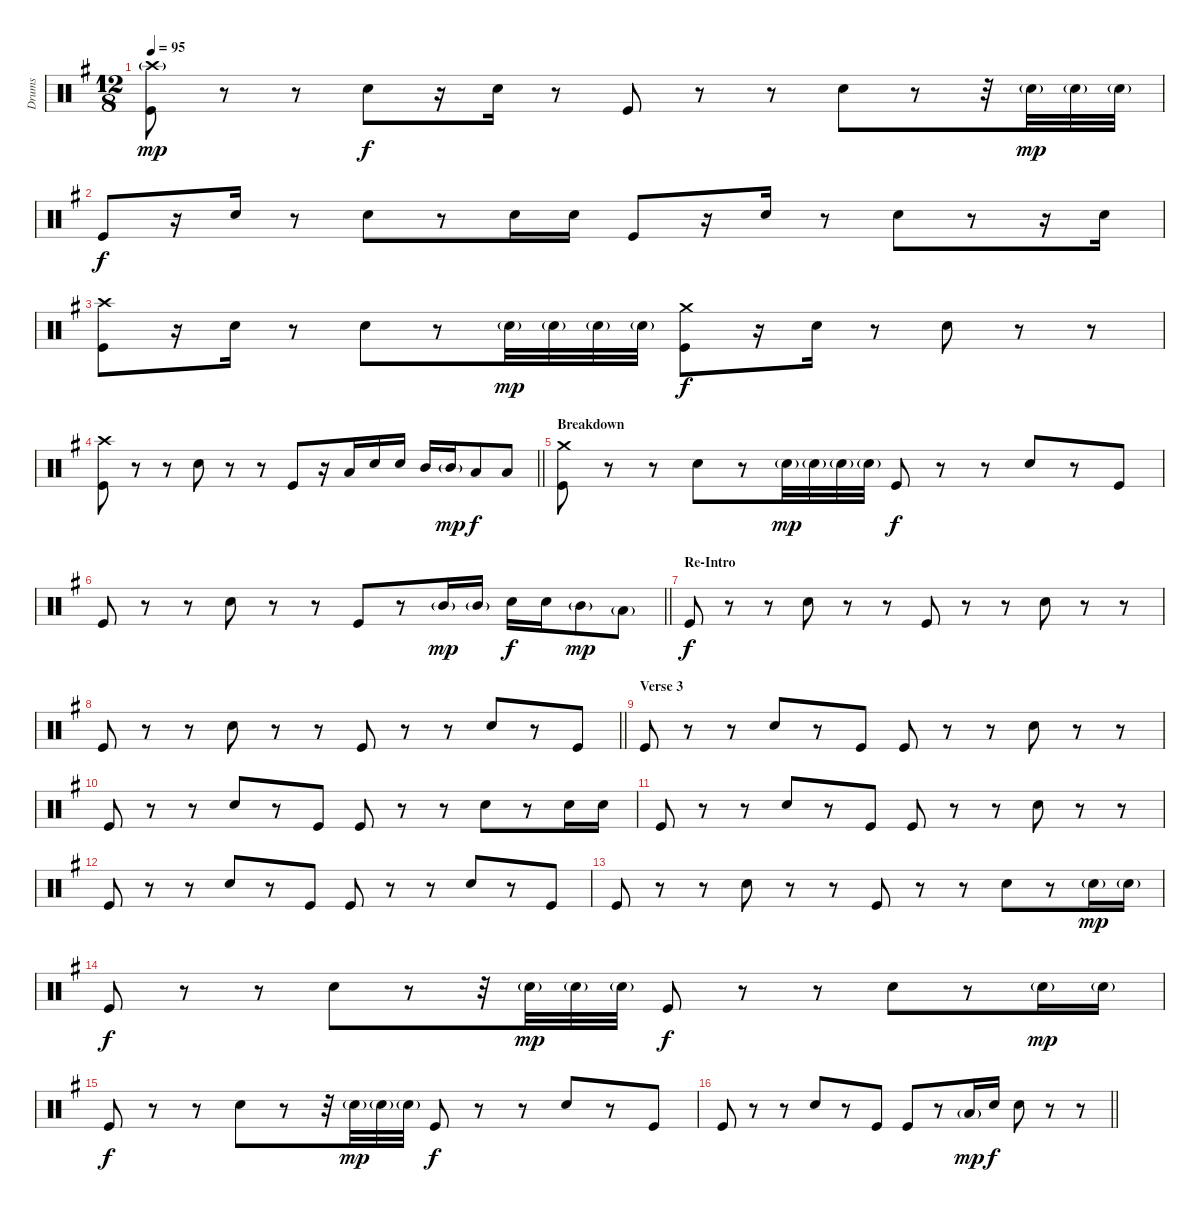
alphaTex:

\track ("Drums" "Drums") {instrument percussion}
\staff {score}
\articulation defaults
\ts (12 8)
\tempo 95
\clef neutral
\ks eminor
("Crash high (hit)"{g} "Kick (hit)").8{dy mp} r.8 r.8 "Snare (hit) 2".8{dy f} r.16 "Snare (hit) 2".16 r.8 "Kick (hit)".8 r.8 r.8 "Snare (hit) 2".8 r.8 r.32 "Snare (hit) 2"{g}.32{dy mp} "Snare (hit) 2"{g}.32 "Snare (hit) 2"{g}.32 |
"Kick (hit)".8{dy f} r.16 "Snare (hit) 2".16 r.8 "Snare (hit) 2".8 r.8 "Snare (hit) 2".16 "Snare (hit) 2".16 "Kick (hit)".8 r.16 "Snare (hit) 2".16 r.8 "Snare (hit) 2".8 r.8 r.16 "Snare (hit) 2".16 |
("Crash high (hit)" "Kick (hit)").8 r.16 "Snare (hit) 2".16 r.8 "Snare (hit) 2".8 r.8 "Snare (hit) 2"{g}.32{dy mp} "Snare (hit) 2"{g}.32 "Snare (hit) 2"{g}.32 "Snare (hit) 2"{g}.32 ("Crash medium (hit)" "Kick (hit)").8{dy f} r.16 "Snare (hit) 2".16 r.8 "Snare (hit) 2".8 r.8 r.8 |
\barLineRight lightlight
("Crash high (hit)" "Kick (hit)").8 r.8 r.8 "Snare (hit) 2".8 r.8 r.8 "Kick (hit)".8 r.16 "Low Tom (hit)".16 "Snare (hit) 2".16 "Snare (hit) 2".16 "Mid Tom (hit)".16 "Mid Tom (hit)"{g}.16{dy mp} "Low Tom (hit)".8{dy f} "Low Tom (hit)".8 |
\section ("" "Breakdown")
("Crash medium (hit)" "Kick (hit)").8 r.8 r.8 "Snare (hit) 2".8 r.8 "Snare (hit) 2"{g}.32{dy mp} "Snare (hit) 2"{g}.32 "Snare (hit) 2"{g}.32 "Snare (hit) 2"{g}.32 "Kick (hit)".8{dy f} r.8 r.8 "Snare (hit) 2".8 r.8 "Kick (hit)".8 |
\barLineRight lightlight "Kick (hit)".8
r.8 r.8 "Snare (hit) 2".8 r.8 r.8 "Kick (hit)".8 r.8 "Mid Tom (hit)"{g}.16{dy mp} "Mid Tom (hit)"{g}.16 "Snare (hit) 2".16{dy f} "Snare (hit) 2".16 "Mid Tom (hit)"{g}.8{dy mp} "Low Tom (hit)"{g}.8 |
\section ("" "Re-Intro")
"Kick (hit)".8{dy f} r.8 r.8 "Snare (hit) 2".8 r.8 r.8 "Kick (hit)".8 r.8 r.8 "Snare (hit) 2".8 r.8 r.8 |
\barLineRight lightlight "Kick (hit)".8
r.8 r.8 "Snare (hit) 2".8 r.8 r.8 "Kick (hit)".8 r.8 r.8 "Snare (hit) 2".8 r.8 "Kick (hit)".8 |
\section ("" "Verse 3")
"Kick (hit)".8 r.8 r.8 "Snare (hit) 2".8 r.8 "Kick (hit)".8 "Kick (hit)".8 r.8 r.8 "Snare (hit) 2".8 r.8 r.8 |
"Kick (hit)".8 r.8 r.8 "Snare (hit) 2".8 r.8 "Kick (hit)".8 "Kick (hit)".8 r.8 r.8 "Snare (hit) 2".8 r.8 "Snare (hit) 2".16 "Snare (hit) 2".16 |
"Kick (hit)".8 r.8 r.8 "Snare (hit) 2".8 r.8 "Kick (hit)".8 "Kick (hit)".8 r.8 r.8 "Snare (hit) 2".8 r.8 r.8 |
"Kick (hit)".8 r.8 r.8 "Snare (hit) 2".8 r.8 "Kick (hit)".8 "Kick (hit)".8 r.8 r.8 "Snare (hit) 2".8 r.8 "Kick (hit)".8 |
"Kick (hit)".8 r.8 r.8 "Snare (hit) 2".8 r.8 r.8 "Kick (hit)".8 r.8 r.8 "Snare (hit) 2".8 r.8 "Snare (hit) 2"{g}.16{dy mp} "Snare (hit) 2"{g}.16 |
"Kick (hit)".8{dy f} r.8 r.8 "Snare (hit) 2".8 r.8 r.32 "Snare (hit) 2"{g}.32{dy mp} "Snare (hit) 2"{g}.32 "Snare (hit) 2"{g}.32 "Kick (hit)".8{dy f} r.8 r.8 "Snare (hit) 2".8 r.8 "Snare (hit) 2"{g}.16{dy mp} "Snare (hit) 2"{g}.16 |
"Kick (hit)".8{dy f} r.8 r.8 "Snare (hit) 2".8 r.8 r.32 "Snare (hit) 2"{g}.32{dy mp} "Snare (hit) 2"{g}.32 "Snare (hit) 2"{g}.32 "Kick (hit)".8{dy f} r.8 r.8 "Snare (hit) 2".8 r.8 "Kick (hit)".8 |
\barLineRight lightlight "Kick (hit)".8
r.8 r.8 "Snare (hit) 2".8 r.8 "Kick (hit)".8 "Kick (hit)".8 r.8 "Low Tom (hit)"{g}.16{dy mp} "Snare (hit) 2".16{dy f} "Snare (hit) 2".8 r.8 r.8
